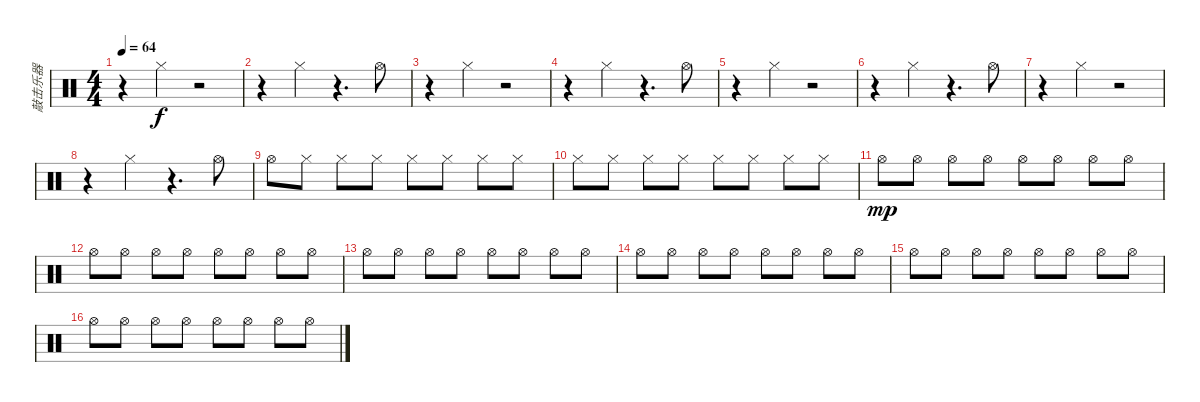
\track ("敲击乐器" "敲击乐器") {instrument percussion}
\staff {score}
\articulation defaults
\ts (4 4)
\tempo 64
\clef neutral
\ks c
r.4{dy f} "Hi-Hat (closed)".4 r.2 |
r.4 "Hi-Hat (closed)".4 r.4{d} "Hi-Hat (open)".8 |
r.4 "Hi-Hat (closed)".4 r.2 |
r.4 "Hi-Hat (closed)".4 r.4{d} "Hi-Hat (open)".8 |
r.4 "Hi-Hat (closed)".4 r.2 |
r.4 "Hi-Hat (closed)".4 r.4{d} "Hi-Hat (open)".8 |
r.4 "Hi-Hat (closed)".4 r.2 |
r.4 "Hi-Hat (closed)".4 r.4{d} "Hi-Hat (open)".8 |
"Hi-Hat (open)".8 "Hi-Hat (closed)".8 "Hi-Hat (closed)".8 "Hi-Hat (closed)".8 "Hi-Hat (closed)".8 "Hi-Hat (closed)".8 "Hi-Hat (closed)".8 "Hi-Hat (closed)".8 |
"Hi-Hat (closed)".8 "Hi-Hat (closed)".8 "Hi-Hat (closed)".8 "Hi-Hat (closed)".8 "Hi-Hat (closed)".8 "Hi-Hat (closed)".8 "Hi-Hat (closed)".8 "Hi-Hat (closed)".8 |
"Hi-Hat (open)".8{dy mp} "Hi-Hat (open)".8 "Hi-Hat (open)".8 "Hi-Hat (open)".8 "Hi-Hat (open)".8 "Hi-Hat (open)".8 "Hi-Hat (open)".8 "Hi-Hat (open)".8 |
"Hi-Hat (open)".8 "Hi-Hat (open)".8 "Hi-Hat (open)".8 "Hi-Hat (open)".8 "Hi-Hat (open)".8 "Hi-Hat (open)".8 "Hi-Hat (open)".8 "Hi-Hat (open)".8 |
"Hi-Hat (open)".8 "Hi-Hat (open)".8 "Hi-Hat (open)".8 "Hi-Hat (open)".8 "Hi-Hat (open)".8 "Hi-Hat (open)".8 "Hi-Hat (open)".8 "Hi-Hat (open)".8 |
"Hi-Hat (open)".8 "Hi-Hat (open)".8 "Hi-Hat (open)".8 "Hi-Hat (open)".8 "Hi-Hat (open)".8 "Hi-Hat (open)".8 "Hi-Hat (open)".8 "Hi-Hat (open)".8 |
"Hi-Hat (open)".8 "Hi-Hat (open)".8 "Hi-Hat (open)".8 "Hi-Hat (open)".8 "Hi-Hat (open)".8 "Hi-Hat (open)".8 "Hi-Hat (open)".8 "Hi-Hat (open)".8 |
"Hi-Hat (open)".8 "Hi-Hat (open)".8 "Hi-Hat (open)".8 "Hi-Hat (open)".8 "Hi-Hat (open)".8 "Hi-Hat (open)".8 "Hi-Hat (open)".8 "Hi-Hat (open)".8
